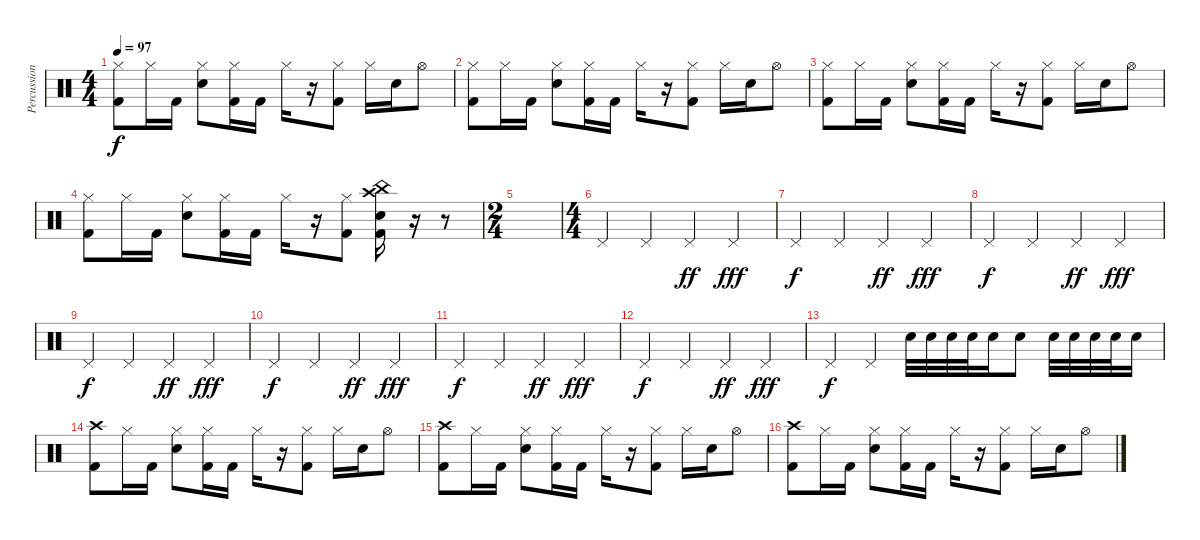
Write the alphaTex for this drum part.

\track ("Percussion" "Percussion") {instrument percussion}
\staff {score}
\articulation defaults
\ts (4 4)
\tempo 97
\clef neutral
\ks c
("Hi-Hat (closed)" "Kick (hit) 2").8{dy f} "Hi-Hat (closed)".16 "Kick (hit) 2".16 ("Hi-Hat (closed)" "Snare (hit) 2").8 ("Hi-Hat (closed)" "Kick (hit) 2").16 "Kick (hit) 2".16 "Hi-Hat (closed)".16 r.16 ("Hi-Hat (closed)" "Kick (hit) 2").8 "Hi-Hat (closed)".16 "Snare (hit) 2".16 "Hi-Hat (open)".8 |
("Hi-Hat (closed)" "Kick (hit) 2").8 "Hi-Hat (closed)".16 "Kick (hit) 2".16 ("Hi-Hat (closed)" "Snare (hit) 2").8 ("Hi-Hat (closed)" "Kick (hit) 2").16 "Kick (hit) 2".16 "Hi-Hat (closed)".16 r.16 ("Hi-Hat (closed)" "Kick (hit) 2").8 "Hi-Hat (closed)".16 "Snare (hit) 2".16 "Hi-Hat (open)".8 |
("Hi-Hat (closed)" "Kick (hit) 2").8 "Hi-Hat (closed)".16 "Kick (hit) 2".16 ("Hi-Hat (closed)" "Snare (hit) 2").8 ("Hi-Hat (closed)" "Kick (hit) 2").16 "Kick (hit) 2".16 "Hi-Hat (closed)".16 r.16 ("Hi-Hat (closed)" "Kick (hit) 2").8 "Hi-Hat (closed)".16 "Snare (hit) 2".16 "Hi-Hat (open)".8 |
("Hi-Hat (closed)" "Kick (hit) 2").8 "Hi-Hat (closed)".16 "Kick (hit) 2".16 ("Hi-Hat (closed)" "Snare (hit) 2").8 ("Hi-Hat (closed)" "Kick (hit) 2").16 "Kick (hit) 2".16 "Hi-Hat (closed)".16 r.16 ("Hi-Hat (closed)" "Kick (hit) 2").8 ("Crash high (hit)" "China (hit)" "Kick (hit) 2" "Snare (hit) 2").16 r.16 r.8 |
\ts (2 4)
|
\ts (4 4)
"Pedal Hi-Hat (hit)".4 "Pedal Hi-Hat (hit)".4 "Pedal Hi-Hat (hit)".4{dy ff} "Pedal Hi-Hat (hit)".4{dy fff} |
"Pedal Hi-Hat (hit)".4{dy f} "Pedal Hi-Hat (hit)".4 "Pedal Hi-Hat (hit)".4{dy ff} "Pedal Hi-Hat (hit)".4{dy fff} |
"Pedal Hi-Hat (hit)".4{dy f} "Pedal Hi-Hat (hit)".4 "Pedal Hi-Hat (hit)".4{dy ff} "Pedal Hi-Hat (hit)".4{dy fff} |
"Pedal Hi-Hat (hit)".4{dy f} "Pedal Hi-Hat (hit)".4 "Pedal Hi-Hat (hit)".4{dy ff} "Pedal Hi-Hat (hit)".4{dy fff} |
"Pedal Hi-Hat (hit)".4{dy f} "Pedal Hi-Hat (hit)".4 "Pedal Hi-Hat (hit)".4{dy ff} "Pedal Hi-Hat (hit)".4{dy fff} |
"Pedal Hi-Hat (hit)".4{dy f} "Pedal Hi-Hat (hit)".4 "Pedal Hi-Hat (hit)".4{dy ff} "Pedal Hi-Hat (hit)".4{dy fff} |
"Pedal Hi-Hat (hit)".4{dy f} "Pedal Hi-Hat (hit)".4 "Pedal Hi-Hat (hit)".4{dy ff} "Pedal Hi-Hat (hit)".4{dy fff} |
"Pedal Hi-Hat (hit)".4{dy f} "Pedal Hi-Hat (hit)".4 "Snare (hit) 2".32 "Snare (hit) 2".32 "Snare (hit) 2".32 "Snare (hit) 2".32 "Snare (hit) 2".16 "Snare (hit) 2".8 "Snare (hit) 2".32 "Snare (hit) 2".32 "Snare (hit) 2".32 "Snare (hit) 2".32 "Snare (hit) 2".16 |
("Crash high (hit)" "Kick (hit) 2").8 "Hi-Hat (closed)".16 "Kick (hit) 2".16 ("Hi-Hat (closed)" "Snare (hit) 2").8 ("Hi-Hat (closed)" "Kick (hit) 2").16 "Kick (hit) 2".16 "Hi-Hat (closed)".16 r.16 ("Hi-Hat (closed)" "Kick (hit) 2").8 "Hi-Hat (closed)".16 "Snare (hit) 2".16 "Hi-Hat (open)".8 |
("Crash high (hit)" "Kick (hit) 2").8 "Hi-Hat (closed)".16 "Kick (hit) 2".16 ("Hi-Hat (closed)" "Snare (hit) 2").8 ("Hi-Hat (closed)" "Kick (hit) 2").16 "Kick (hit) 2".16 "Hi-Hat (closed)".16 r.16 ("Hi-Hat (closed)" "Kick (hit) 2").8 "Hi-Hat (closed)".16 "Snare (hit) 2".16 "Hi-Hat (open)".8 |
("Crash high (hit)" "Kick (hit) 2").8 "Hi-Hat (closed)".16 "Kick (hit) 2".16 ("Hi-Hat (closed)" "Snare (hit) 2").8 ("Hi-Hat (closed)" "Kick (hit) 2").16 "Kick (hit) 2".16 "Hi-Hat (closed)".16 r.16 ("Hi-Hat (closed)" "Kick (hit) 2").8 "Hi-Hat (closed)".16 "Snare (hit) 2".16 "Hi-Hat (open)".8
